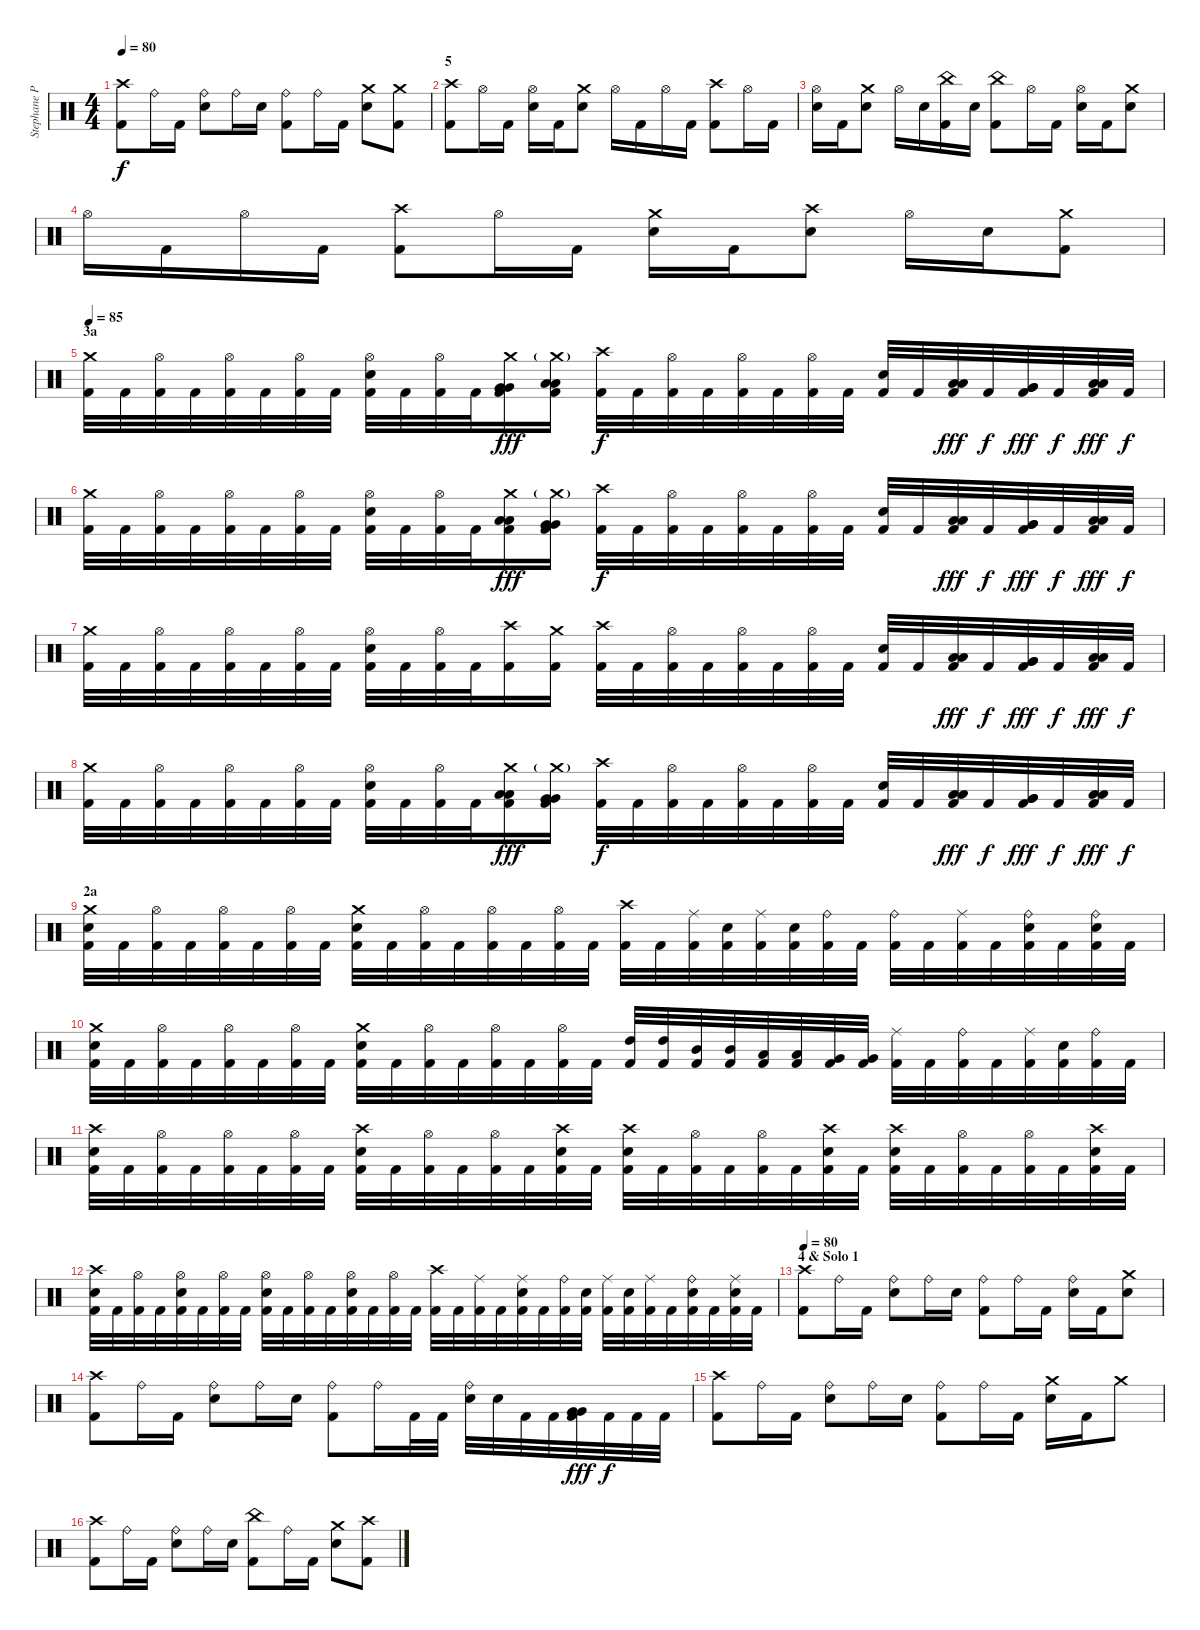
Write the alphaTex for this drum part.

\track ("Stephane Provencher " "Stephane P") {instrument percussion}
\staff {score}
\articulation defaults
\ts (4 4)
\tempo 80
\clef neutral
\ks c
("Crash high (hit)" "Kick (hit) 2").8{dy f} "Ride (bell)".16 "Kick (hit) 2".16 ("Ride (bell)" "Electric Snare (hit)").8 "Ride (bell)".16 "Electric Snare (hit)".16 ("Ride (bell)" "Kick (hit) 2").8 "Ride (bell)".16 "Kick (hit) 2".16 ("Crash medium (hit)" "Electric Snare (hit)").8 ("Crash medium (hit)" "Kick (hit) 2").8 |
\section ("" "5")
("Crash high (hit)" "Kick (hit) 2").8 "Hi-Hat (open)".16 "Kick (hit) 2".16 ("Hi-Hat (open)" "Electric Snare (hit)").16 "Kick (hit) 2".16 ("Crash medium (hit)" "Electric Snare (hit)").8 "Hi-Hat (open)".16 "Kick (hit) 2".16 "Hi-Hat (open)".16 "Kick (hit) 2".16 ("Crash high (hit)" "Kick (hit) 2").8 "Hi-Hat (open)".16 "Kick (hit) 2".16 |
("Hi-Hat (open)" "Electric Snare (hit)").16 "Kick (hit) 2".16 ("Crash medium (hit)" "Electric Snare (hit)").8 "Hi-Hat (open)".16 "Electric Snare (hit)".16 ("China (hit)" "Kick (hit) 2").16 "Electric Snare (hit)".16 ("China (hit)" "Kick (hit) 2").8 "Hi-Hat (open)".16 "Kick (hit) 2".16 ("Hi-Hat (open)" "Electric Snare (hit)").16 "Kick (hit) 2".16 ("Crash medium (hit)" "Electric Snare (hit)").8 |
"Hi-Hat (open)".16 "Kick (hit) 2".16 "Hi-Hat (open)".16 "Kick (hit) 2".16 ("Crash high (hit)" "Kick (hit) 2").8 "Hi-Hat (open)".16 "Kick (hit) 2".16 ("Crash medium (hit)" "Electric Snare (hit)").16 "Kick (hit) 2".16 ("Crash high (hit)" "Electric Snare (hit)").8 "Hi-Hat (open)".16 "Electric Snare (hit)".16 ("Crash medium (hit)" "Kick (hit) 2").8 |
\section ("" "3a")
\tempo 85
("Crash medium (hit)" "Kick (hit) 2").32{volume 14} "Kick (hit) 2".32 ("Hi-Hat (open)" "Kick (hit) 2").32 "Kick (hit) 2".32 ("Hi-Hat (open)" "Kick (hit) 2").32 "Kick (hit) 2".32 ("Hi-Hat (open)" "Kick (hit) 2").32 "Kick (hit) 2".32 ("Hi-Hat (open)" "Electric Snare (hit)" "Kick (hit) 2").32 "Kick (hit) 2".32 ("Hi-Hat (open)" "Kick (hit) 2").32 "Kick (hit) 2".32 ("Crash medium (hit)" "Very Low Tom (hit)" "Very Low Tom (hit)" "Kick (hit) 2").16{dy fff} ("Crash medium (hit)"{g} "Low Floor Tom (hit)" "Low Floor Tom (hit)" "Kick (hit) 2").16 ("Crash high (hit)" "Kick (hit) 2").32{dy f} "Kick (hit) 2".32 ("Hi-Hat (open)" "Kick (hit) 2").32 "Kick (hit) 2".32 ("Hi-Hat (open)" "Kick (hit) 2").32 "Kick (hit) 2".32 ("Hi-Hat (open)" "Kick (hit) 2").32 "Kick (hit) 2".32 ("Electric Snare (hit)" "Kick (hit) 2").32 "Kick (hit) 2".32 ("Low Tom (hit)" "Low Tom (hit)" "Kick (hit) 2").32{dy fff} "Kick (hit) 2".32{dy f} ("Very Low Tom (hit)" "Very Low Tom (hit)" "Kick (hit) 2").32{dy fff} "Kick (hit) 2".32{dy f} ("Low Floor Tom (hit)" "Low Floor Tom (hit)" "Kick (hit) 2").32{dy fff} "Kick (hit) 2".32{dy f} |
("Crash medium (hit)" "Kick (hit) 2").32 "Kick (hit) 2".32 ("Hi-Hat (open)" "Kick (hit) 2").32 "Kick (hit) 2".32 ("Hi-Hat (open)" "Kick (hit) 2").32 "Kick (hit) 2".32 ("Hi-Hat (open)" "Kick (hit) 2").32 "Kick (hit) 2".32 ("Hi-Hat (open)" "Electric Snare (hit)" "Kick (hit) 2").32 "Kick (hit) 2".32 ("Hi-Hat (open)" "Kick (hit) 2").32 "Kick (hit) 2".32 ("Crash medium (hit)" "Low Tom (hit)" "Low Tom (hit)" "Kick (hit) 2").16{dy fff} ("Crash medium (hit)"{g} "Very Low Tom (hit)" "Very Low Tom (hit)" "Kick (hit) 2").16 ("Crash high (hit)" "Kick (hit) 2").32{dy f} "Kick (hit) 2".32 ("Hi-Hat (open)" "Kick (hit) 2").32 "Kick (hit) 2".32 ("Hi-Hat (open)" "Kick (hit) 2").32 "Kick (hit) 2".32 ("Hi-Hat (open)" "Kick (hit) 2").32 "Kick (hit) 2".32 ("Electric Snare (hit)" "Kick (hit) 2").32 "Kick (hit) 2".32 ("Low Tom (hit)" "Low Tom (hit)" "Kick (hit) 2").32{dy fff} "Kick (hit) 2".32{dy f} ("Very Low Tom (hit)" "Very Low Tom (hit)" "Kick (hit) 2").32{dy fff} "Kick (hit) 2".32{dy f} ("Low Floor Tom (hit)" "Low Floor Tom (hit)" "Kick (hit) 2").32{dy fff} "Kick (hit) 2".32{dy f} |
("Crash medium (hit)" "Kick (hit) 2").32 "Kick (hit) 2".32 ("Hi-Hat (open)" "Kick (hit) 2").32 "Kick (hit) 2".32 ("Hi-Hat (open)" "Kick (hit) 2").32 "Kick (hit) 2".32 ("Hi-Hat (open)" "Kick (hit) 2").32 "Kick (hit) 2".32 ("Hi-Hat (open)" "Electric Snare (hit)" "Kick (hit) 2").32 "Kick (hit) 2".32 ("Hi-Hat (open)" "Kick (hit) 2").32 "Kick (hit) 2".32 ("Crash high (hit)" "Kick (hit) 2").16 ("Crash medium (hit)" "Kick (hit) 2").16 ("Crash high (hit)" "Kick (hit) 2").32 "Kick (hit) 2".32 ("Hi-Hat (open)" "Kick (hit) 2").32 "Kick (hit) 2".32 ("Hi-Hat (open)" "Kick (hit) 2").32 "Kick (hit) 2".32 ("Hi-Hat (open)" "Kick (hit) 2").32 "Kick (hit) 2".32 ("Electric Snare (hit)" "Kick (hit) 2").32 "Kick (hit) 2".32 ("Low Tom (hit)" "Low Tom (hit)" "Kick (hit) 2").32{dy fff} "Kick (hit) 2".32{dy f} ("Very Low Tom (hit)" "Very Low Tom (hit)" "Kick (hit) 2").32{dy fff} "Kick (hit) 2".32{dy f} ("Low Floor Tom (hit)" "Low Floor Tom (hit)" "Kick (hit) 2").32{dy fff} "Kick (hit) 2".32{dy f} |
("Crash medium (hit)" "Kick (hit) 2").32 "Kick (hit) 2".32 ("Hi-Hat (open)" "Kick (hit) 2").32 "Kick (hit) 2".32 ("Hi-Hat (open)" "Kick (hit) 2").32 "Kick (hit) 2".32 ("Hi-Hat (open)" "Kick (hit) 2").32 "Kick (hit) 2".32 ("Hi-Hat (open)" "Electric Snare (hit)" "Kick (hit) 2").32 "Kick (hit) 2".32 ("Hi-Hat (open)" "Kick (hit) 2").32 "Kick (hit) 2".32 ("Crash medium (hit)" "Low Tom (hit)" "Low Tom (hit)" "Kick (hit) 2").16{dy fff} ("Crash medium (hit)"{g} "Very Low Tom (hit)" "Very Low Tom (hit)" "Kick (hit) 2").16 ("Crash high (hit)" "Kick (hit) 2").32{dy f} "Kick (hit) 2".32 ("Hi-Hat (open)" "Kick (hit) 2").32 "Kick (hit) 2".32 ("Hi-Hat (open)" "Kick (hit) 2").32 "Kick (hit) 2".32 ("Hi-Hat (open)" "Kick (hit) 2").32 "Kick (hit) 2".32 ("Electric Snare (hit)" "Kick (hit) 2").32 "Kick (hit) 2".32 ("Low Tom (hit)" "Low Tom (hit)" "Kick (hit) 2").32{dy fff} "Kick (hit) 2".32{dy f} ("Very Low Tom (hit)" "Very Low Tom (hit)" "Kick (hit) 2").32{dy fff} "Kick (hit) 2".32{dy f} ("Low Floor Tom (hit)" "Low Floor Tom (hit)" "Kick (hit) 2").32{dy fff} "Kick (hit) 2".32{dy f} |
\section ("" "2a")
("Crash medium (hit)" "Electric Snare (hit)" "Kick (hit) 2").32 "Kick (hit) 2".32 ("Hi-Hat (open)" "Kick (hit) 2").32 "Kick (hit) 2".32 ("Hi-Hat (open)" "Kick (hit) 2").32 "Kick (hit) 2".32 ("Hi-Hat (open)" "Kick (hit) 2").32 "Kick (hit) 2".32 ("Crash medium (hit)" "Electric Snare (hit)" "Kick (hit) 2").32 "Kick (hit) 2".32 ("Hi-Hat (open)" "Kick (hit) 2").32 "Kick (hit) 2".32 ("Hi-Hat (open)" "Kick (hit) 2").32 "Kick (hit) 2".32 ("Hi-Hat (open)" "Kick (hit) 2").32 "Kick (hit) 2".32 ("Crash high (hit)" "Kick (hit) 2").32 "Kick (hit) 2".32 ("Ride (middle)" "Kick (hit) 2").32 ("Electric Snare (hit)" "Kick (hit) 2").32 ("Ride (middle)" "Kick (hit) 2").32 ("Electric Snare (hit)" "Kick (hit) 2").32 ("Ride (bell)" "Kick (hit) 2").32 "Kick (hit) 2".32 ("Ride (bell)" "Kick (hit) 2").32 "Kick (hit) 2".32 ("Ride (middle)" "Kick (hit) 2").32 "Kick (hit) 2".32 ("Ride (bell)" "Electric Snare (hit)" "Kick (hit) 2").32 "Kick (hit) 2".32 ("Ride (bell)" "Electric Snare (hit)" "Kick (hit) 2").32 "Kick (hit) 2".32 |
("Crash medium (hit)" "Electric Snare (hit)" "Kick (hit) 2").32 "Kick (hit) 2".32 ("Hi-Hat (open)" "Kick (hit) 2").32 "Kick (hit) 2".32 ("Hi-Hat (open)" "Kick (hit) 2").32 "Kick (hit) 2".32 ("Hi-Hat (open)" "Kick (hit) 2").32 "Kick (hit) 2".32 ("Crash medium (hit)" "Electric Snare (hit)" "Kick (hit) 2").32 "Kick (hit) 2".32 ("Hi-Hat (open)" "Kick (hit) 2").32 "Kick (hit) 2".32 ("Hi-Hat (open)" "Kick (hit) 2").32 "Kick (hit) 2".32 ("Hi-Hat (open)" "Kick (hit) 2").32 "Kick (hit) 2".32 ("High Tom (hit)" "Kick (hit) 2").32 ("High Tom (hit)" "Kick (hit) 2").32 ("Mid Tom (hit)" "Kick (hit) 2").32 ("Mid Tom (hit)" "Kick (hit) 2").32 ("Low Tom (hit)" "Kick (hit) 2").32 ("Low Tom (hit)" "Kick (hit) 2").32 ("Very Low Tom (hit)" "Kick (hit) 2").32 ("Very Low Tom (hit)" "Kick (hit) 2").32 ("Ride (middle)" "Kick (hit) 2").32 "Kick (hit) 2".32 ("Ride (bell)" "Kick (hit) 2").32 "Kick (hit) 2".32 ("Ride (middle)" "Kick (hit) 2").32 ("Electric Snare (hit)" "Kick (hit) 2").32 ("Ride (bell)" "Kick (hit) 2").32 "Kick (hit) 2".32 |
("Crash high (hit)" "Electric Snare (hit)" "Kick (hit) 2").32 "Kick (hit) 2".32 ("Hi-Hat (open)" "Kick (hit) 2").32 "Kick (hit) 2".32 ("Hi-Hat (open)" "Kick (hit) 2").32 "Kick (hit) 2".32 ("Hi-Hat (open)" "Kick (hit) 2").32 "Kick (hit) 2".32 ("Crash high (hit)" "Electric Snare (hit)" "Kick (hit) 2").32 "Kick (hit) 2".32 ("Hi-Hat (open)" "Kick (hit) 2").32 "Kick (hit) 2".32 ("Hi-Hat (open)" "Kick (hit) 2").32 "Kick (hit) 2".32 ("Crash high (hit)" "Electric Snare (hit)" "Kick (hit) 2").32 "Kick (hit) 2".32 ("Crash high (hit)" "Electric Snare (hit)" "Kick (hit) 2").32 "Kick (hit) 2".32 ("Hi-Hat (open)" "Kick (hit) 2").32 "Kick (hit) 2".32 ("Hi-Hat (open)" "Kick (hit) 2").32 "Kick (hit) 2".32 ("Crash high (hit)" "Electric Snare (hit)" "Kick (hit) 2").32 "Kick (hit) 2".32 ("Crash high (hit)" "Electric Snare (hit)" "Kick (hit) 2").32 "Kick (hit) 2".32 ("Hi-Hat (open)" "Kick (hit) 2").32 "Kick (hit) 2".32 ("Hi-Hat (open)" "Kick (hit) 2").32 "Kick (hit) 2".32 ("Crash high (hit)" "Electric Snare (hit)" "Kick (hit) 2").32 "Kick (hit) 2".32 |
("Crash high (hit)" "Electric Snare (hit)" "Kick (hit) 2").32 "Kick (hit) 2".32 ("Hi-Hat (open)" "Kick (hit) 2").32 "Kick (hit) 2".32 ("Hi-Hat (open)" "Electric Snare (hit)" "Kick (hit) 2").32 "Kick (hit) 2".32 ("Hi-Hat (open)" "Kick (hit) 2").32 "Kick (hit) 2".32 ("Hi-Hat (open)" "Electric Snare (hit)" "Kick (hit) 2").32 "Kick (hit) 2".32 ("Hi-Hat (open)" "Kick (hit) 2").32 "Kick (hit) 2".32 ("Hi-Hat (open)" "Electric Snare (hit)" "Kick (hit) 2").32 "Kick (hit) 2".32 ("Hi-Hat (open)" "Kick (hit) 2").32 "Kick (hit) 2".32 ("Crash high (hit)" "Kick (hit) 2").32 "Kick (hit) 2".32 ("Ride (middle)" "Kick (hit) 2").32 "Kick (hit) 2".32 ("Ride (middle)" "Electric Snare (hit)" "Kick (hit) 2").32 "Kick (hit) 2".32 ("Ride (bell)" "Kick (hit) 2").32 ("Electric Snare (hit)" "Kick (hit) 2").32 ("Ride (middle)" "Kick (hit) 2").32 ("Electric Snare (hit)" "Kick (hit) 2").32 ("Ride (middle)" "Kick (hit) 2").32 "Kick (hit) 2".32 ("Ride (bell)" "Electric Snare (hit)" "Kick (hit) 2").32 "Kick (hit) 2".32 ("Ride (middle)" "Electric Snare (hit)" "Kick (hit) 2").32 "Kick (hit) 2".32 |
\section ("" "4 & Solo 1")
\tempo 80
("Crash high (hit)" "Kick (hit) 2").8 "Ride (bell)".16 "Kick (hit) 2".16 ("Ride (bell)" "Electric Snare (hit)").8 "Ride (bell)".16 "Electric Snare (hit)".16 ("Ride (bell)" "Kick (hit) 2").8 "Ride (bell)".16 "Kick (hit) 2".16 ("Ride (bell)" "Electric Snare (hit)").16 "Kick (hit) 2".16 ("Crash medium (hit)" "Electric Snare (hit)").8 |
("Crash high (hit)" "Kick (hit) 2").8 "Ride (bell)".16 "Kick (hit) 2".16 ("Ride (bell)" "Electric Snare (hit)").8 "Ride (bell)".16 "Electric Snare (hit)".16 ("Ride (bell)" "Kick (hit) 2").8 "Ride (bell)".16 "Kick (hit) 2".32 "Kick (hit) 2".32 ("Ride (bell)" "Electric Snare (hit)").32 "Electric Snare (hit)".32 "Kick (hit) 2".32 "Kick (hit) 2".32 ("Very Low Tom (hit)" "Very Low Tom (hit)" "Kick (hit) 2").32{dy fff} "Kick (hit) 2".32{dy f} "Kick (hit) 2".32 "Kick (hit) 2".32 |
("Crash high (hit)" "Kick (hit) 2").8 "Ride (bell)".16 "Kick (hit) 2".16 ("Ride (bell)" "Electric Snare (hit)").8 "Ride (bell)".16 "Electric Snare (hit)".16 ("Ride (bell)" "Kick (hit) 2").8 "Ride (bell)".16 "Kick (hit) 2".16 ("Crash medium (hit)" "Electric Snare (hit)").16 "Kick (hit) 2".16 "Crash medium (hit)".8 |
("Crash high (hit)" "Kick (hit) 2").8 "Ride (bell)".16 "Kick (hit) 2".16 ("Ride (bell)" "Electric Snare (hit)").8 "Ride (bell)".16 "Electric Snare (hit)".16 ("China (hit)" "Kick (hit) 2").8 "Ride (bell)".16 "Kick (hit) 2".16 ("Crash medium (hit)" "Electric Snare (hit)").8 ("Crash high (hit)" "Kick (hit) 2").8
